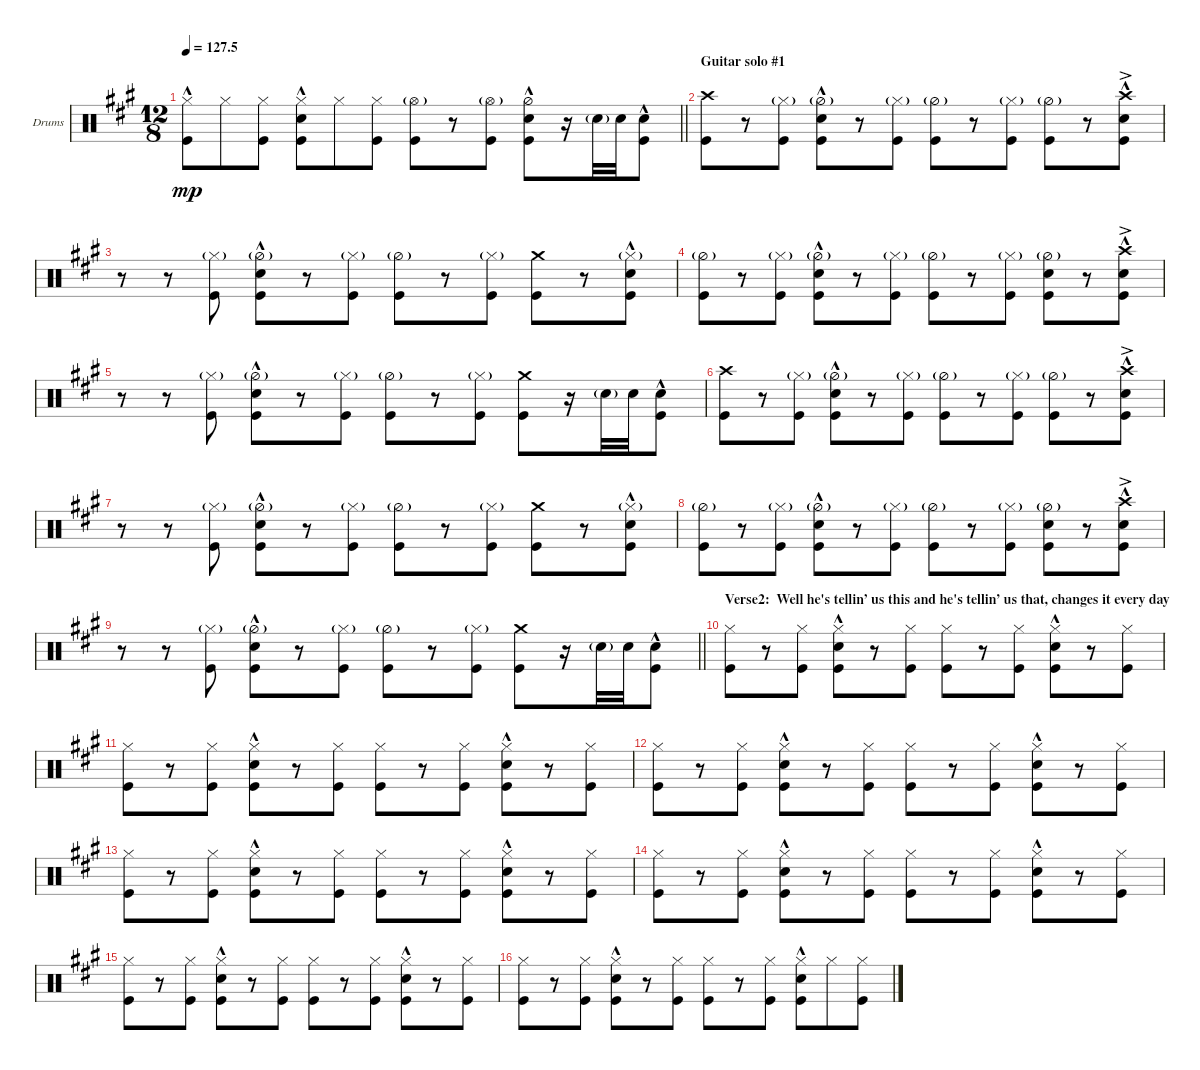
\bracketExtendMode groupsimilarinstruments
\firstSystemTrackNameOrientation horizontal
\otherSystemsTrackNameOrientation horizontal
\track ("Drumkit" "Drums") {instrument percussion}
\staff {score}
\articulation defaults
\ts (12 8)
\tempo
127.5
\accidentals auto
\clef neutral
\ottava regular
\simile none
\scale
0.333333
\barLineRight lightlight
\ks a
("Kick (hit)" "Hi-Hat (closed)"{hac}).8{dy mp} "Hi-Hat (closed)".8 ("Kick (hit)" "Hi-Hat (closed)").8 ("Kick (hit)" "Snare (hit) 2"{hac} "Hi-Hat (closed)"{hac}).8 "Hi-Hat (closed)".8 ("Kick (hit)" "Hi-Hat (closed)").8 ("Kick (hit)" "Hi-Hat (open)"{g}).8 r.8 ("Kick (hit)" "Hi-Hat (open)"{g}).8 ("Snare (hit) 2"{hac} "Kick (hit)" "Hi-Hat (half)").8 r.16 "Snare (hit) 2"{g}.32 "Snare (hit) 2".32 ("Kick (hit)" "Snare (hit) 2"{hac}).8 |
\section ("" "Guitar solo #1")
\scale
0.333333 ("Kick (hit)" "Crash high (hit)").8 r.8 ("Kick (hit)" "Hi-Hat (closed)"{g}).8 ("Kick (hit)" "Hi-Hat (half)"{g} "Snare (hit) 2"{hac}).8 r.8 ("Kick (hit)" "Hi-Hat (closed)"{g}).8 ("Kick (hit)" "Hi-Hat (half)"{g}).8 r.8 ("Kick (hit)" "Hi-Hat (closed)"{g}).8 ("Kick (hit)" "Hi-Hat (half)"{g}).8 r.8 ("Kick (hit)" "Snare (hit) 2"{hac} "Crash high (hit)"{ac}).8 |
\scale
0.333333 r.8 r.8 ("Kick (hit)" "Hi-Hat (closed)"{g}).8 ("Kick (hit)" "Hi-Hat (half)"{g} "Snare (hit) 2"{hac}).8 r.8 ("Kick (hit)" "Hi-Hat (closed)"{g}).8 ("Kick (hit)" "Hi-Hat (half)"{g}).8 r.8 ("Kick (hit)" "Hi-Hat (closed)"{g}).8 ("Kick (hit)" "Crash medium (hit)").8 r.8 ("Kick (hit)" "Hi-Hat (closed)"{g} "Snare (hit) 2"{hac}).8 |
\scale
0.333333 ("Kick (hit)" "Hi-Hat (half)"{g}).8 r.8 ("Kick (hit)" "Hi-Hat (closed)"{g}).8 ("Kick (hit)" "Hi-Hat (half)"{g} "Snare (hit) 2"{hac}).8 r.8 ("Kick (hit)" "Hi-Hat (closed)"{g}).8 ("Kick (hit)" "Hi-Hat (half)"{g}).8 r.8 ("Kick (hit)" "Hi-Hat (closed)"{g}).8 ("Kick (hit)" "Hi-Hat (half)"{g} "Snare (hit) 2").8 r.8 ("Kick (hit)" "Snare (hit) 2"{hac} "Crash high (hit)"{ac}).8 |
\scale
0.333333 r.8 r.8 ("Kick (hit)" "Hi-Hat (closed)"{g}).8 ("Kick (hit)" "Hi-Hat (half)"{g} "Snare (hit) 2"{hac}).8 r.8 ("Kick (hit)" "Hi-Hat (closed)"{g}).8 ("Kick (hit)" "Hi-Hat (half)"{g}).8 r.8 ("Kick (hit)" "Hi-Hat (closed)"{g}).8 ("Kick (hit)" "Crash medium (hit)").8 r.16 "Snare (hit) 2"{g}.32 "Snare (hit) 2".32 ("Kick (hit)" "Snare (hit) 2"{hac}).8 |
\scale
0.333333 ("Kick (hit)" "Crash high (hit)").8 r.8 ("Kick (hit)" "Hi-Hat (closed)"{g}).8 ("Kick (hit)" "Hi-Hat (half)"{g} "Snare (hit) 2"{hac}).8 r.8 ("Kick (hit)" "Hi-Hat (closed)"{g}).8 ("Kick (hit)" "Hi-Hat (half)"{g}).8 r.8 ("Kick (hit)" "Hi-Hat (closed)"{g}).8 ("Kick (hit)" "Hi-Hat (half)"{g}).8 r.8 ("Kick (hit)" "Snare (hit) 2"{hac} "Crash high (hit)"{ac}).8 |
\scale
0.333333 r.8 r.8 ("Kick (hit)" "Hi-Hat (closed)"{g}).8 ("Kick (hit)" "Hi-Hat (half)"{g} "Snare (hit) 2"{hac}).8 r.8 ("Kick (hit)" "Hi-Hat (closed)"{g}).8 ("Kick (hit)" "Hi-Hat (half)"{g}).8 r.8 ("Kick (hit)" "Hi-Hat (closed)"{g}).8 ("Kick (hit)" "Crash medium (hit)").8 r.8 ("Kick (hit)" "Hi-Hat (closed)"{g} "Snare (hit) 2"{hac}).8 |
\scale
0.333333 ("Kick (hit)" "Hi-Hat (half)"{g}).8 r.8 ("Kick (hit)" "Hi-Hat (closed)"{g}).8 ("Kick (hit)" "Hi-Hat (half)"{g} "Snare (hit) 2"{hac}).8 r.8 ("Kick (hit)" "Hi-Hat (closed)"{g}).8 ("Kick (hit)" "Hi-Hat (half)"{g}).8 r.8 ("Kick (hit)" "Hi-Hat (closed)"{g}).8 ("Kick (hit)" "Hi-Hat (half)"{g} "Snare (hit) 2").8 r.8 ("Kick (hit)" "Snare (hit) 2"{hac} "Crash high (hit)"{ac}).8 |
\scale
0.333333
\barLineRight lightlight
r.8 r.8 ("Kick (hit)" "Hi-Hat (closed)"{g}).8 ("Kick (hit)" "Hi-Hat (half)"{g} "Snare (hit) 2"{hac}).8 r.8 ("Kick (hit)" "Hi-Hat (closed)"{g}).8 ("Kick (hit)" "Hi-Hat (half)"{g}).8 r.8 ("Kick (hit)" "Hi-Hat (closed)"{g}).8 ("Kick (hit)" "Crash medium (hit)").8 r.16 "Snare (hit) 2"{g}.32 "Snare (hit) 2".32 ("Kick (hit)" "Snare (hit) 2"{hac}).8 |
\section ("" "Verse2:  Well he's tellin’ us this and he's tellin’ us that, changes it every day")
\scale
0.333333 ("Kick (hit)" "Hi-Hat (closed)").8 r.8 ("Kick (hit)" "Hi-Hat (closed)").8 ("Kick (hit)" "Snare (hit) 2"{hac} "Hi-Hat (closed)").8 r.8 ("Kick (hit)" "Hi-Hat (closed)").8 ("Kick (hit)" "Hi-Hat (closed)").8 r.8 ("Kick (hit)" "Hi-Hat (closed)").8 ("Kick (hit)" "Snare (hit) 2"{hac} "Hi-Hat (closed)").8 r.8 ("Kick (hit)" "Hi-Hat (closed)").8 |
\scale
0.333333 ("Kick (hit)" "Hi-Hat (closed)").8 r.8 ("Kick (hit)" "Hi-Hat (closed)").8 ("Kick (hit)" "Snare (hit) 2"{hac} "Hi-Hat (closed)").8 r.8 ("Kick (hit)" "Hi-Hat (closed)").8 ("Kick (hit)" "Hi-Hat (closed)").8 r.8 ("Kick (hit)" "Hi-Hat (closed)").8 ("Kick (hit)" "Snare (hit) 2"{hac} "Hi-Hat (closed)").8 r.8 ("Kick (hit)" "Hi-Hat (closed)").8 |
\scale
0.333333 ("Kick (hit)" "Hi-Hat (closed)").8 r.8 ("Kick (hit)" "Hi-Hat (closed)").8 ("Kick (hit)" "Snare (hit) 2"{hac} "Hi-Hat (closed)").8 r.8 ("Kick (hit)" "Hi-Hat (closed)").8 ("Kick (hit)" "Hi-Hat (closed)").8 r.8 ("Kick (hit)" "Hi-Hat (closed)").8 ("Kick (hit)" "Snare (hit) 2"{hac} "Hi-Hat (closed)").8 r.8 ("Kick (hit)" "Hi-Hat (closed)").8 |
\scale
0.333333 ("Kick (hit)" "Hi-Hat (closed)").8 r.8 ("Kick (hit)" "Hi-Hat (closed)").8 ("Kick (hit)" "Snare (hit) 2"{hac} "Hi-Hat (closed)").8 r.8 ("Kick (hit)" "Hi-Hat (closed)").8 ("Kick (hit)" "Hi-Hat (closed)").8 r.8 ("Kick (hit)" "Hi-Hat (closed)").8 ("Kick (hit)" "Snare (hit) 2"{hac} "Hi-Hat (closed)").8 r.8 ("Kick (hit)" "Hi-Hat (closed)").8 |
\scale
0.333333 ("Kick (hit)" "Hi-Hat (closed)").8 r.8 ("Kick (hit)" "Hi-Hat (closed)").8 ("Kick (hit)" "Snare (hit) 2"{hac} "Hi-Hat (closed)").8 r.8 ("Kick (hit)" "Hi-Hat (closed)").8 ("Kick (hit)" "Hi-Hat (closed)").8 r.8 ("Kick (hit)" "Hi-Hat (closed)").8 ("Kick (hit)" "Snare (hit) 2"{hac} "Hi-Hat (closed)").8 r.8 ("Kick (hit)" "Hi-Hat (closed)").8 |
\scale
0.333333 ("Kick (hit)" "Hi-Hat (closed)").8 r.8 ("Kick (hit)" "Hi-Hat (closed)").8 ("Kick (hit)" "Snare (hit) 2"{hac} "Hi-Hat (closed)").8 r.8 ("Kick (hit)" "Hi-Hat (closed)").8 ("Kick (hit)" "Hi-Hat (closed)").8 r.8 ("Kick (hit)" "Hi-Hat (closed)").8 ("Kick (hit)" "Snare (hit) 2"{hac} "Hi-Hat (closed)").8 r.8 ("Kick (hit)" "Hi-Hat (closed)").8 |
("Kick (hit)" "Hi-Hat (closed)").8 r.8 ("Kick (hit)" "Hi-Hat (closed)").8 ("Kick (hit)" "Snare (hit) 2"{hac} "Hi-Hat (closed)").8 r.8 ("Kick (hit)" "Hi-Hat (closed)").8 ("Kick (hit)" "Hi-Hat (closed)").8 r.8 ("Kick (hit)" "Hi-Hat (closed)").8 ("Kick (hit)" "Snare (hit) 2"{hac} "Hi-Hat (closed)").8 "Hi-Hat (closed)".8 ("Kick (hit)" "Hi-Hat (closed)").8
